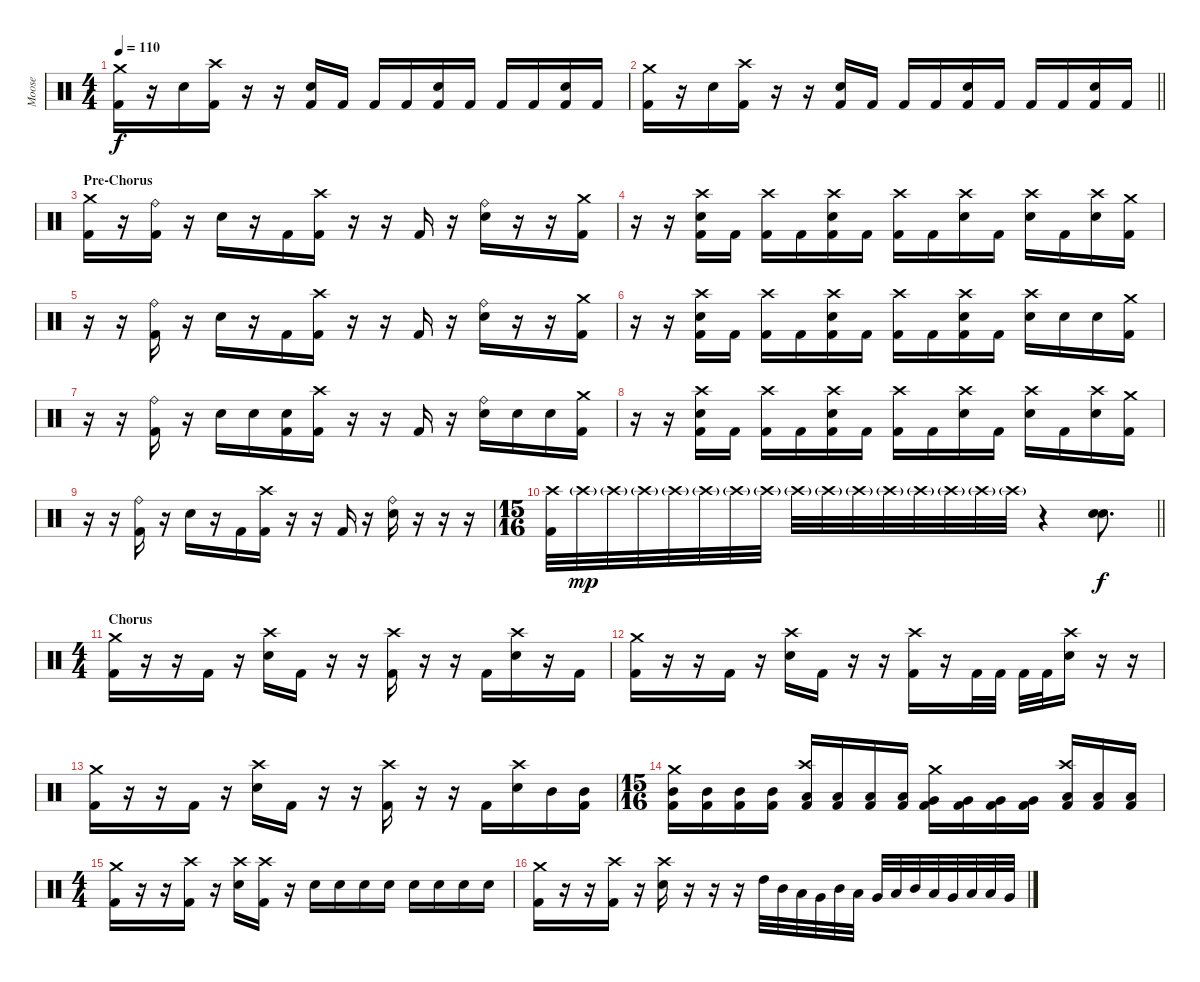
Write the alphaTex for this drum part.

\track ("Moose" "Moose") {instrument percussion}
\staff {score}
\articulation defaults
\ts (4 4)
\tempo 110
\clef neutral
\ks c
("Crash medium (hit)" "Kick (hit) 2").16{dy f} r.16 "Electric Snare (hit)".16 ("Crash high (hit)" "Kick (hit) 2").16 r.16 r.16 ("Electric Snare (hit)" "Kick (hit) 2").16 "Kick (hit) 2".16 "Kick (hit) 2".16 "Kick (hit) 2".16 ("Electric Snare (hit)" "Kick (hit) 2").16 "Kick (hit) 2".16 "Kick (hit) 2".16 "Kick (hit) 2".16 ("Electric Snare (hit)" "Kick (hit) 2").16 "Kick (hit) 2".16 |
\barLineRight lightlight
("Crash medium (hit)" "Kick (hit) 2").16 r.16 "Electric Snare (hit)".16 ("Crash high (hit)" "Kick (hit) 2").16 r.16 r.16 ("Electric Snare (hit)" "Kick (hit) 2").16 "Kick (hit) 2".16 "Kick (hit) 2".16 "Kick (hit) 2".16 ("Electric Snare (hit)" "Kick (hit) 2").16 "Kick (hit) 2".16 "Kick (hit) 2".16 "Kick (hit) 2".16 ("Electric Snare (hit)" "Kick (hit) 2").16 "Kick (hit) 2".16 |
\section ("" "Pre-Chorus")
("Crash medium (hit)" "Kick (hit) 2").16 r.16 ("Ride (bell)" "Kick (hit) 2").16 r.16 "Electric Snare (hit)".16 r.16 "Kick (hit) 2".16 ("Crash high (hit)" "Kick (hit) 2").16 r.16 r.16 "Kick (hit) 2".16 r.16 ("Ride (bell)" "Electric Snare (hit)").16 r.16 r.16 ("Crash medium (hit)" "Kick (hit) 2").16 |
r.16 r.16 ("Crash high (hit)" "Electric Snare (hit)" "Kick (hit) 2").16 "Kick (hit) 2".16 ("Crash high (hit)" "Kick (hit) 2").16 "Kick (hit) 2".16 ("Crash high (hit)" "Electric Snare (hit)" "Kick (hit) 2").16 "Kick (hit) 2".16 ("Crash high (hit)" "Kick (hit) 2").16 "Kick (hit) 2".16 ("Crash high (hit)" "Electric Snare (hit)").16 "Kick (hit) 2".16 ("Crash high (hit)" "Electric Snare (hit)").16 "Kick (hit) 2".16 ("Crash high (hit)" "Electric Snare (hit)").16 ("Crash medium (hit)" "Kick (hit) 2").16 |
r.16 r.16 ("Ride (bell)" "Kick (hit) 2").16 r.16 "Electric Snare (hit)".16 r.16 "Kick (hit) 2".16 ("Crash high (hit)" "Kick (hit) 2").16 r.16 r.16 "Kick (hit) 2".16 r.16 ("Ride (bell)" "Electric Snare (hit)").16 r.16 r.16 ("Crash medium (hit)" "Kick (hit) 2").16 |
r.16 r.16 ("Crash high (hit)" "Electric Snare (hit)" "Kick (hit) 2").16 "Kick (hit) 2".16 ("Crash high (hit)" "Kick (hit) 2").16 "Kick (hit) 2".16 ("Crash high (hit)" "Electric Snare (hit)" "Kick (hit) 2").16 "Kick (hit) 2".16 ("Crash high (hit)" "Kick (hit) 2").16 "Kick (hit) 2".16 ("Crash high (hit)" "Electric Snare (hit)" "Kick (hit) 2").16 "Kick (hit) 2".16 ("Crash high (hit)" "Electric Snare (hit)").16 "Electric Snare (hit)".16 "Electric Snare (hit)".16 ("Crash medium (hit)" "Kick (hit) 2").16 |
r.16 r.16 ("Ride (bell)" "Kick (hit) 2").16 r.16 "Electric Snare (hit)".16 "Electric Snare (hit)".16 ("Electric Snare (hit)" "Kick (hit) 2").16 ("Crash high (hit)" "Kick (hit) 2").16 r.16 r.16 "Kick (hit) 2".16 r.16 ("Ride (bell)" "Electric Snare (hit)").16 "Electric Snare (hit)".16 "Electric Snare (hit)".16 ("Crash medium (hit)" "Kick (hit) 2").16 |
r.16 r.16 ("Crash high (hit)" "Electric Snare (hit)" "Kick (hit) 2").16 "Kick (hit) 2".16 ("Crash high (hit)" "Kick (hit) 2").16 "Kick (hit) 2".16 ("Crash high (hit)" "Electric Snare (hit)" "Kick (hit) 2").16 "Kick (hit) 2".16 ("Crash high (hit)" "Kick (hit) 2").16 "Kick (hit) 2".16 ("Crash high (hit)" "Electric Snare (hit)").16 "Kick (hit) 2".16 ("Crash high (hit)" "Electric Snare (hit)").16 "Kick (hit) 2".16 ("Crash high (hit)" "Electric Snare (hit)").16 ("Crash medium (hit)" "Kick (hit) 2").16 |
r.16 r.16 ("Ride (bell)" "Kick (hit) 2").16 r.16 "Electric Snare (hit)".16 r.16 "Kick (hit) 2".16 ("Crash high (hit)" "Kick (hit) 2").16 r.16 r.16 "Kick (hit) 2".16 r.16 ("Ride (bell)" "Electric Snare (hit)").16 r.16 r.16 r.16 |
\ts (15 16)
\barLineRight lightlight
("Crash high (hit)" "Kick (hit) 2").32{volume 16} "Crash high (hit)"{g}.32{dy mp} "Crash high (hit)"{g}.32 "Crash high (hit)"{g}.32 "Crash high (hit)"{g}.32 "Crash high (hit)"{g}.32 "Crash high (hit)"{g}.32 "Crash high (hit)"{g}.32 "Crash high (hit)"{g}.32 "Crash high (hit)"{g}.32 "Crash high (hit)"{g}.32 "Crash high (hit)"{g}.32 "Crash high (hit)"{g}.32 "Crash high (hit)"{g}.32 "Crash high (hit)"{g}.32 "Crash high (hit)"{g}.32 r.4 ("Electric Snare (hit)" "Electric Snare (hit)").8{d dy f} |
\ts (4 4)
\section ("" "Chorus")
("Crash medium (hit)" "Kick (hit) 2").16 r.16 r.16 "Kick (hit) 2".16 r.16 ("Crash high (hit)" "Electric Snare (hit)").16 "Kick (hit) 2".16 r.16 r.16 ("Crash high (hit)" "Kick (hit) 2").16 r.16 r.16 "Kick (hit) 2".16 ("Crash high (hit)" "Electric Snare (hit)").16 r.16 "Kick (hit) 2".16 |
("Crash medium (hit)" "Kick (hit) 2").16 r.16 r.16 "Kick (hit) 2".16 r.16 ("Crash high (hit)" "Electric Snare (hit)").16 "Kick (hit) 2".16 r.16 r.16 ("Crash high (hit)" "Kick (hit) 2").16 r.16 "Kick (hit) 2".32 "Kick (hit) 2".32 "Kick (hit) 2".32 "Kick (hit) 2".32 ("Crash high (hit)" "Electric Snare (hit)").16 r.16 r.16 |
("Crash medium (hit)" "Kick (hit) 2").16 r.16 r.16 "Kick (hit) 2".16 r.16 ("Crash high (hit)" "Electric Snare (hit)").16 "Kick (hit) 2".16 r.16 r.16 ("Crash high (hit)" "Kick (hit) 2").16 r.16 r.16 "Kick (hit) 2".16 ("Crash high (hit)" "Electric Snare (hit)").16 "Mid Tom (hit)".16 ("Mid Tom (hit)" "Kick (hit) 2").16 |
\ts (15 16)
("Crash medium (hit)" "Mid Tom (hit)" "Kick (hit) 2").16 ("Mid Tom (hit)" "Kick (hit) 2").16 ("Mid Tom (hit)" "Kick (hit) 2").16 ("Mid Tom (hit)" "Kick (hit) 2").16 ("Crash high (hit)" "Low Tom (hit)" "Kick (hit) 2").16 ("Low Tom (hit)" "Kick (hit) 2").16 ("Low Tom (hit)" "Kick (hit) 2").16 ("Low Tom (hit)" "Kick (hit) 2").16 ("Crash medium (hit)" "Very Low Tom (hit)" "Kick (hit) 2").16 ("Very Low Tom (hit)" "Kick (hit) 2").16 ("Very Low Tom (hit)" "Kick (hit) 2").16 ("Very Low Tom (hit)" "Kick (hit) 2").16 ("Crash high (hit)" "Low Floor Tom (hit)" "Kick (hit) 2").16 ("Low Floor Tom (hit)" "Kick (hit) 2").16 ("Low Floor Tom (hit)" "Kick (hit) 2").16 |
\ts (4 4)
("Crash medium (hit)" "Kick (hit) 2").16 r.16 r.16 ("Crash high (hit)" "Kick (hit) 2").16 r.16 ("Crash high (hit)" "Electric Snare (hit)").16 ("Crash high (hit)" "Kick (hit) 2").16 r.16 "Electric Snare (hit)".16 "Electric Snare (hit)".16 "Electric Snare (hit)".16 "Electric Snare (hit)".16 "Electric Snare (hit)".16 "Electric Snare (hit)".16 "Electric Snare (hit)".16 "Electric Snare (hit)".16 |
("Crash medium (hit)" "Kick (hit) 2").16 r.16 r.16 ("Crash high (hit)" "Kick (hit) 2").16 r.16 ("Crash high (hit)" "Electric Snare (hit)").16 r.16 r.16 r.16 "High Tom (hit)".32 "Mid Tom (hit)".32 "Low Tom (hit)".32 "Very Low Tom (hit)".32 "Mid Tom (hit)".32 "Low Tom (hit)".32 "Very Low Tom (hit)".32 "Low Floor Tom (hit)".32 "Mid Tom (hit)".32 "Low Tom (hit)".32 "Very Low Tom (hit)".32 "Low Floor Tom (hit)".32 "Low Tom (hit)".32 "Very Low Tom (hit)".32
